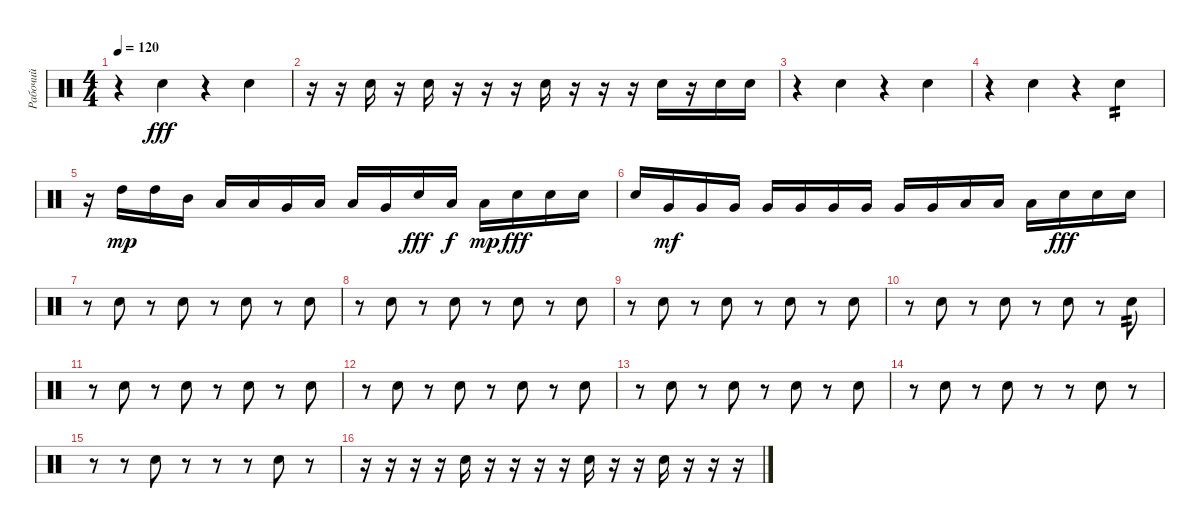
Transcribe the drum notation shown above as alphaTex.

\track ("Рабочий" "Рабочий") {instrument percussion}
\staff {score}
\articulation defaults
\ts (4 4)
\tempo 120
\clef neutral
\ks c
r.4{dy fff} "Snare (hit) 2".4 r.4 "Snare (hit) 2".4 |
r.16 r.16 "Snare (hit) 2".16 r.16 "Snare (hit) 2".16 r.16 r.16 r.16 "Snare (hit) 2".16 r.16 r.16 r.16 "Snare (hit) 2".16 r.16 "Snare (hit) 2".16 "Snare (hit) 2".16 |
r.4 "Snare (hit) 2".4 r.4 "Snare (hit) 2".4 |
r.4 "Snare (hit) 2".4 r.4 "Snare (hit) 2".4{tp 2} |
r.16 "High Tom (hit)".16{dy mp} "High Tom (hit)".16 "Mid Tom (hit)".16 "Low Tom (hit)".16 "Low Tom (hit)".16 "Very Low Tom (hit)".16 "Low Tom (hit)".16 "Low Tom (hit)".16 "Very Low Tom (hit)".16 "Snare (hit) 2".16{dy fff} "Low Floor Tom (hit)".16{dy f} "Low Floor Tom (hit)".16{dy mp} "Snare (hit) 2".16{dy fff} "Snare (hit) 2".16 "Snare (hit) 2".16 |
"Snare (hit) 2".16 "Very Low Tom (hit)".16{dy mf} "Very Low Tom (hit)".16 "Very Low Tom (hit)".16 "Very Low Tom (hit)".16 "Very Low Tom (hit)".16 "Very Low Tom (hit)".16 "Very Low Tom (hit)".16 "Very Low Tom (hit)".16 "Very Low Tom (hit)".16 "Low Floor Tom (hit)".16 "Low Floor Tom (hit)".16 "Low Floor Tom (hit)".16 "Snare (hit) 2".16{dy fff} "Snare (hit) 2".16 "Snare (hit) 2".16 |
r.8 "Snare (hit) 2".8 r.8 "Snare (hit) 2".8 r.8 "Snare (hit) 2".8 r.8 "Snare (hit) 2".8 |
r.8 "Snare (hit) 2".8 r.8 "Snare (hit) 2".8 r.8 "Snare (hit) 2".8 r.8 "Snare (hit) 2".8 |
r.8 "Snare (hit) 2".8 r.8 "Snare (hit) 2".8 r.8 "Snare (hit) 2".8 r.8 "Snare (hit) 2".8 |
r.8 "Snare (hit) 2".8 r.8 "Snare (hit) 2".8 r.8 "Snare (hit) 2".8 r.8 "Snare (hit) 2".8{tp 2} |
r.8 "Snare (hit) 2".8 r.8 "Snare (hit) 2".8 r.8 "Snare (hit) 2".8 r.8 "Snare (hit) 2".8 |
r.8 "Snare (hit) 2".8 r.8 "Snare (hit) 2".8 r.8 "Snare (hit) 2".8 r.8 "Snare (hit) 2".8 |
r.8 "Snare (hit) 2".8 r.8 "Snare (hit) 2".8 r.8 "Snare (hit) 2".8 r.8 "Snare (hit) 2".8 |
r.8 "Snare (hit) 2".8 r.8 "Snare (hit) 2".8 r.8 r.8 "Snare (hit) 2".8 r.8 |
r.8 r.8 "Snare (hit) 2".8 r.8 r.8 r.8 "Snare (hit) 2".8 r.8 |
r.16 r.16 r.16 r.16 "Snare (hit) 2".16 r.16 r.16 r.16 r.16 "Snare (hit) 2".16 r.16 r.16 "Snare (hit) 2".16 r.16 r.16 r.16
